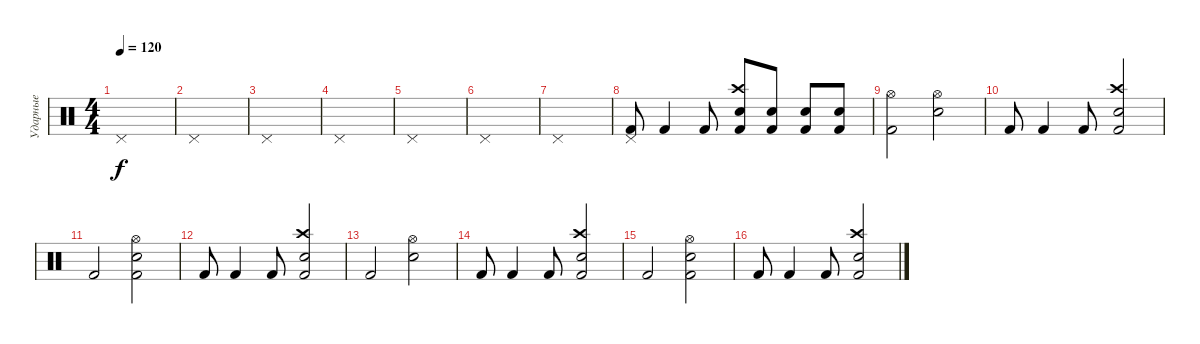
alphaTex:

\track ("Ударные" "Ударные") {instrument percussion}
\staff {score}
\articulation defaults
\ts (4 4)
\tempo 120
\clef neutral
\ks c "Pedal Hi-Hat (hit)".1{dy f}
|
"Pedal Hi-Hat (hit)".1 |
"Pedal Hi-Hat (hit)".1 |
"Pedal Hi-Hat (hit)".1 |
"Pedal Hi-Hat (hit)".1 |
"Pedal Hi-Hat (hit)".1 |
"Pedal Hi-Hat (hit)".1 |
("Pedal Hi-Hat (hit)" "Kick (hit) 2").8 "Kick (hit) 2".4 "Kick (hit) 2".8 ("Crash high (hit)" "Snare (hit) 2" "Kick (hit) 2").8 ("Snare (hit) 2" "Kick (hit) 2").8 ("Snare (hit) 2" "Kick (hit) 2").8 ("Snare (hit) 2" "Kick (hit) 2").8 |
("Hi-Hat (open)" "Kick (hit) 2").2 ("Hi-Hat (open)" "Snare (hit) 2").2 |
"Kick (hit) 2".8 "Kick (hit) 2".4 "Kick (hit) 2".8 ("Crash high (hit)" "Snare (hit) 2" "Kick (hit) 2").2 |
"Kick (hit) 2".2 ("Hi-Hat (open)" "Snare (hit) 2" "Kick (hit) 2").2 |
"Kick (hit) 2".8 "Kick (hit) 2".4 "Kick (hit) 2".8 ("Crash high (hit)" "Snare (hit) 2" "Kick (hit) 2").2 |
"Kick (hit) 2".2 ("Hi-Hat (open)" "Snare (hit) 2").2 |
"Kick (hit) 2".8 "Kick (hit) 2".4 "Kick (hit) 2".8 ("Crash high (hit)" "Snare (hit) 2" "Kick (hit) 2").2 |
"Kick (hit) 2".2 ("Hi-Hat (open)" "Snare (hit) 2" "Kick (hit) 2").2 |
"Kick (hit) 2".8 "Kick (hit) 2".4 "Kick (hit) 2".8 ("Crash high (hit)" "Snare (hit) 2" "Kick (hit) 2").2
